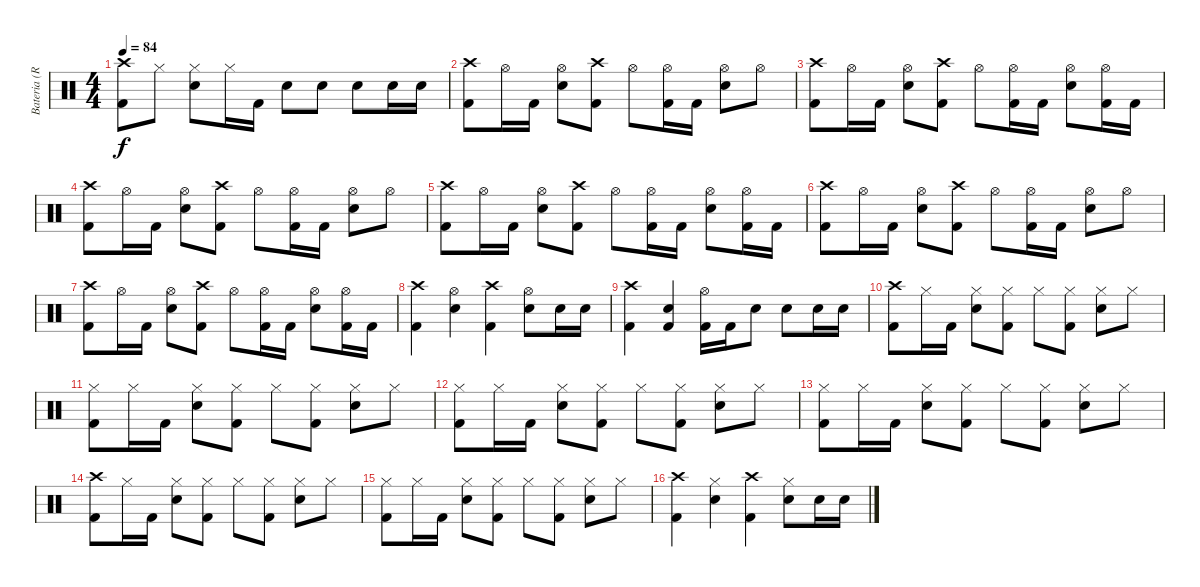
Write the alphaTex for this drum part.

\track ("Bateria (Robert Sweet)" "Bateria (R") {instrument percussion}
\staff {score}
\articulation defaults
\ts (4 4)
\tempo 84
\clef neutral
\ks c
("Crash high (hit)" "Kick (hit) 2").8{dy f} "Hi-Hat (closed)".8 ("Electric Snare (hit)" "Hi-Hat (closed)").8 "Hi-Hat (closed)".16 "Kick (hit) 2".16 "Electric Snare (hit)".8 "Electric Snare (hit)".8 "Electric Snare (hit)".8 "Electric Snare (hit)".16 "Electric Snare (hit)".16 |
("Crash high (hit)" "Kick (hit) 2").8 "Hi-Hat (open)".16 "Kick (hit) 2".16 ("Electric Snare (hit)" "Hi-Hat (open)").8 ("Crash high (hit)" "Kick (hit) 2").8 "Hi-Hat (open)".8 ("Hi-Hat (open)" "Kick (hit) 2").16 "Kick (hit) 2".16 ("Electric Snare (hit)" "Hi-Hat (open)").8 "Hi-Hat (open)".8 |
("Crash high (hit)" "Kick (hit) 2").8 "Hi-Hat (open)".16 "Kick (hit) 2".16 ("Electric Snare (hit)" "Hi-Hat (open)").8 ("Crash high (hit)" "Kick (hit) 2").8 "Hi-Hat (open)".8 ("Hi-Hat (open)" "Kick (hit) 2").16 "Kick (hit) 2".16 ("Electric Snare (hit)" "Hi-Hat (open)").8 ("Hi-Hat (open)" "Kick (hit) 2").16 "Kick (hit) 2".16 |
("Crash high (hit)" "Kick (hit) 2").8 "Hi-Hat (open)".16 "Kick (hit) 2".16 ("Electric Snare (hit)" "Hi-Hat (open)").8 ("Crash high (hit)" "Kick (hit) 2").8 "Hi-Hat (open)".8 ("Hi-Hat (open)" "Kick (hit) 2").16 "Kick (hit) 2".16 ("Electric Snare (hit)" "Hi-Hat (open)").8 "Hi-Hat (open)".8 |
("Crash high (hit)" "Kick (hit) 2").8 "Hi-Hat (open)".16 "Kick (hit) 2".16 ("Electric Snare (hit)" "Hi-Hat (open)").8 ("Crash high (hit)" "Kick (hit) 2").8 "Hi-Hat (open)".8 ("Hi-Hat (open)" "Kick (hit) 2").16 "Kick (hit) 2".16 ("Electric Snare (hit)" "Hi-Hat (open)").8 ("Hi-Hat (open)" "Kick (hit) 2").16 "Kick (hit) 2".16 |
("Crash high (hit)" "Kick (hit) 2").8 "Hi-Hat (open)".16 "Kick (hit) 2".16 ("Electric Snare (hit)" "Hi-Hat (open)").8 ("Crash high (hit)" "Kick (hit) 2").8 "Hi-Hat (open)".8 ("Hi-Hat (open)" "Kick (hit) 2").16 "Kick (hit) 2".16 ("Electric Snare (hit)" "Hi-Hat (open)").8 "Hi-Hat (open)".8 |
("Crash high (hit)" "Kick (hit) 2").8 "Hi-Hat (open)".16 "Kick (hit) 2".16 ("Electric Snare (hit)" "Hi-Hat (open)").8 ("Crash high (hit)" "Kick (hit) 2").8 "Hi-Hat (open)".8 ("Hi-Hat (open)" "Kick (hit) 2").16 "Kick (hit) 2".16 ("Electric Snare (hit)" "Hi-Hat (open)").8 ("Hi-Hat (open)" "Kick (hit) 2").16 "Kick (hit) 2".16 |
("Crash high (hit)" "Kick (hit) 2").4 ("Electric Snare (hit)" "Hi-Hat (open)").4 ("Crash high (hit)" "Kick (hit) 2").4 ("Electric Snare (hit)" "Hi-Hat (open)").8 "Electric Snare (hit)".16 "Electric Snare (hit)".16 |
("Crash high (hit)" "Kick (hit) 2").4 ("Electric Snare (hit)" "Kick (hit) 2").4 ("Hi-Hat (open)" "Kick (hit) 2").16 "Kick (hit) 2".16 "Electric Snare (hit)".8 "Electric Snare (hit)".8 "Electric Snare (hit)".16 "Electric Snare (hit)".16 |
("Crash high (hit)" "Kick (hit) 2").8 "Hi-Hat (closed)".16 "Kick (hit) 2".16 ("Electric Snare (hit)" "Hi-Hat (closed)").8 ("Hi-Hat (closed)" "Kick (hit) 2").8 "Hi-Hat (closed)".8 ("Hi-Hat (closed)" "Kick (hit) 2").8 ("Electric Snare (hit)" "Hi-Hat (closed)").8 "Hi-Hat (closed)".8 |
("Hi-Hat (closed)" "Kick (hit) 2").8 "Hi-Hat (closed)".16 "Kick (hit) 2".16 ("Electric Snare (hit)" "Hi-Hat (closed)").8 ("Hi-Hat (closed)" "Kick (hit) 2").8 "Hi-Hat (closed)".8 ("Hi-Hat (closed)" "Kick (hit) 2").8 ("Electric Snare (hit)" "Hi-Hat (closed)").8 "Hi-Hat (closed)".8 |
("Hi-Hat (closed)" "Kick (hit) 2").8 "Hi-Hat (closed)".16 "Kick (hit) 2".16 ("Electric Snare (hit)" "Hi-Hat (closed)").8 ("Hi-Hat (closed)" "Kick (hit) 2").8 "Hi-Hat (closed)".8 ("Hi-Hat (closed)" "Kick (hit) 2").8 ("Electric Snare (hit)" "Hi-Hat (closed)").8 "Hi-Hat (closed)".8 |
("Hi-Hat (closed)" "Kick (hit) 2").8 "Hi-Hat (closed)".16 "Kick (hit) 2".16 ("Electric Snare (hit)" "Hi-Hat (closed)").8 ("Hi-Hat (closed)" "Kick (hit) 2").8 "Hi-Hat (closed)".8 ("Hi-Hat (closed)" "Kick (hit) 2").8 ("Electric Snare (hit)" "Hi-Hat (closed)").8 "Hi-Hat (closed)".8 |
("Crash high (hit)" "Kick (hit) 2").8 "Hi-Hat (closed)".16 "Kick (hit) 2".16 ("Electric Snare (hit)" "Hi-Hat (closed)").8 ("Hi-Hat (closed)" "Kick (hit) 2").8 "Hi-Hat (closed)".8 ("Hi-Hat (closed)" "Kick (hit) 2").8 ("Electric Snare (hit)" "Hi-Hat (closed)").8 "Hi-Hat (closed)".8 |
("Hi-Hat (closed)" "Kick (hit) 2").8 "Hi-Hat (closed)".16 "Kick (hit) 2".16 ("Electric Snare (hit)" "Hi-Hat (closed)").8 ("Hi-Hat (closed)" "Kick (hit) 2").8 "Hi-Hat (closed)".8 ("Hi-Hat (closed)" "Kick (hit) 2").8 ("Electric Snare (hit)" "Hi-Hat (closed)").8 "Hi-Hat (closed)".8 |
("Crash high (hit)" "Kick (hit) 2").4 ("Electric Snare (hit)" "Hi-Hat (closed)").4 ("Crash high (hit)" "Kick (hit) 2").4 ("Electric Snare (hit)" "Hi-Hat (closed)").8 "Electric Snare (hit)".16 "Electric Snare (hit)".16
